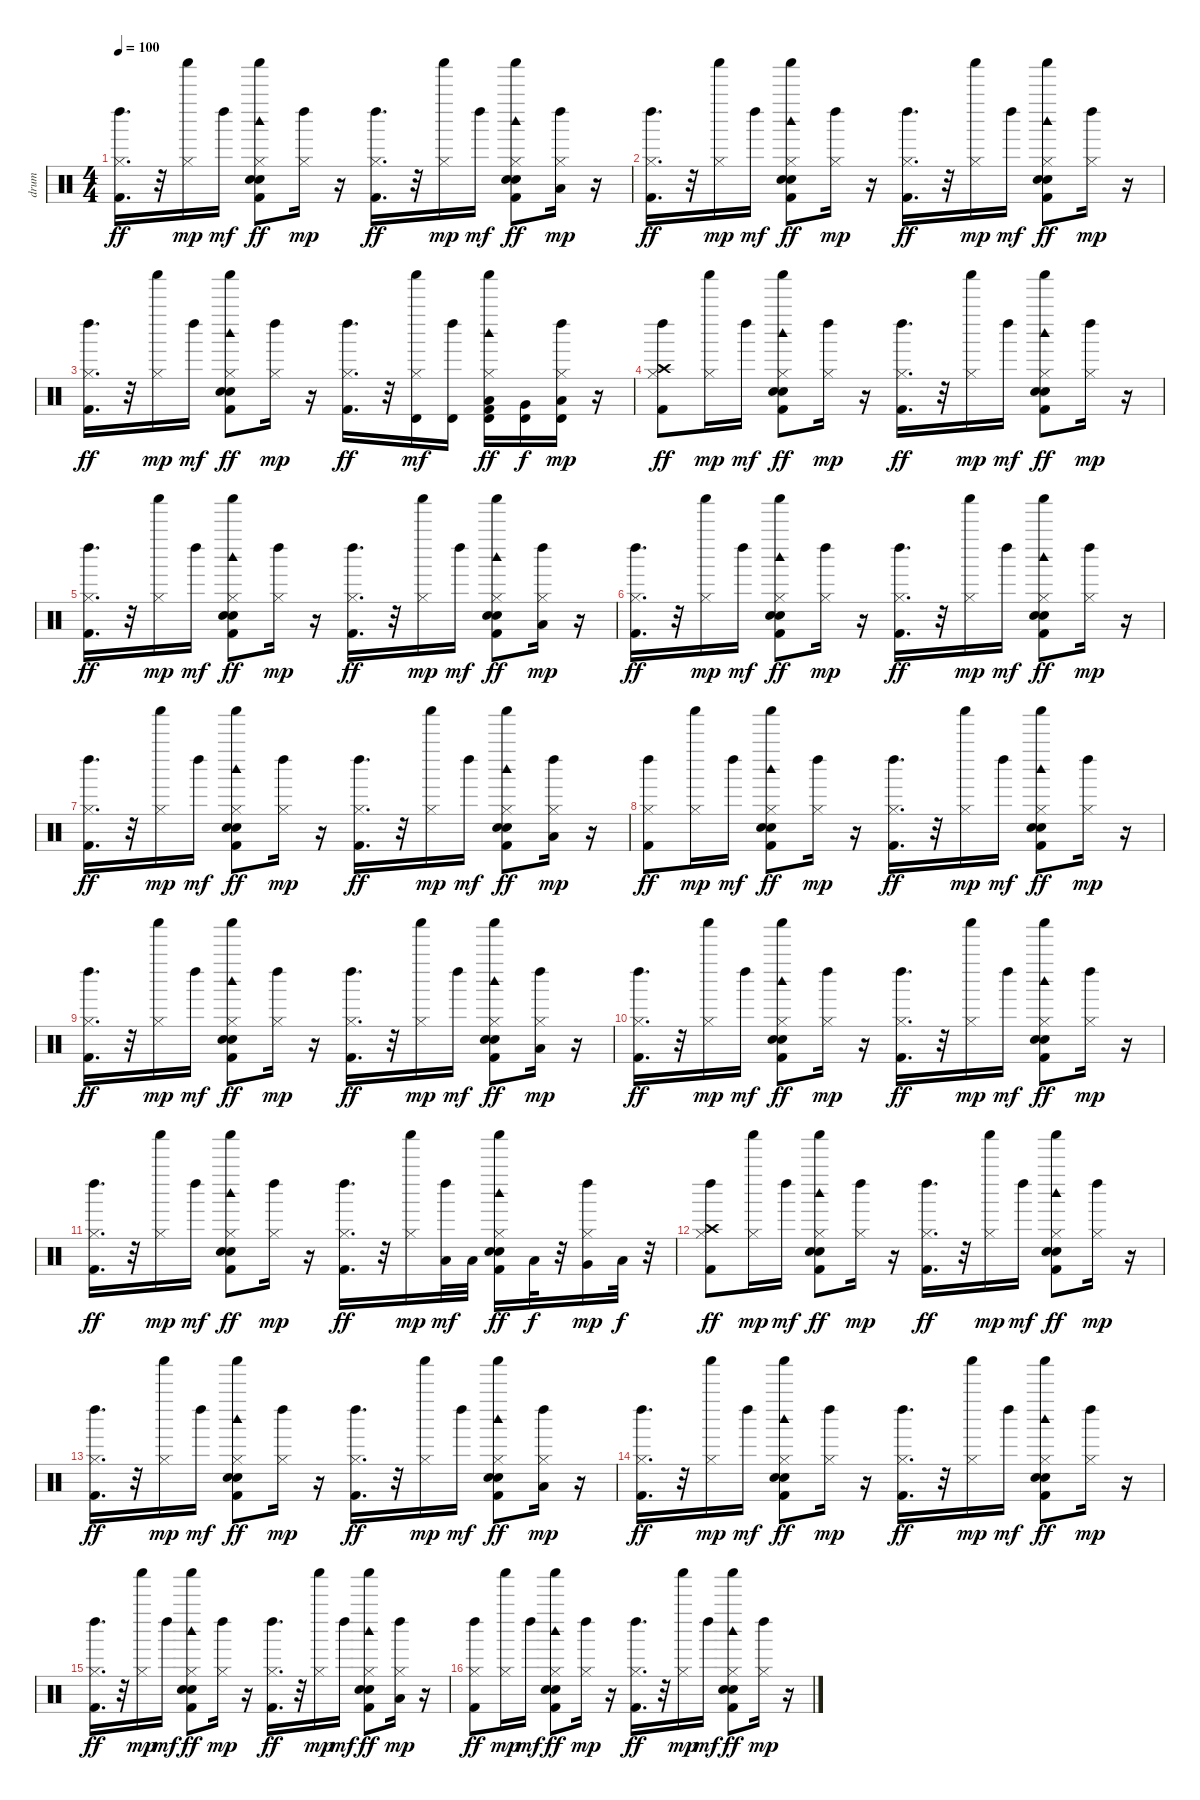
\track ("drum" "drum") {instrument percussion}
\staff {score}
\articulation defaults
\ts (4 4)
\tempo 100
\clef neutral
\ks c
("Left Maraca (hit)" "Hi-Hat (closed)" "Kick (hit) 2").16{d dy ff} r.32 ("Shaker (hit)" "Hi-Hat (closed)").16{dy mp} "Left Maraca (hit)".16{dy mf} ("Shaker (hit)" "Woodblock high (hit)" "Hi-Hat (closed)" "Hand Clap (hit)" "Snare (hit) 2" "Kick (hit) 2").8{dy ff} ("Left Maraca (hit)" "Hi-Hat (closed)").16{dy mp} r.16 ("Left Maraca (hit)" "Hi-Hat (closed)" "Kick (hit) 2").16{d dy ff} r.32 ("Shaker (hit)" "Hi-Hat (closed)").16{dy mp} "Left Maraca (hit)".16{dy mf} ("Shaker (hit)" "Woodblock high (hit)" "Hi-Hat (closed)" "Hand Clap (hit)" "Snare (hit) 2" "Kick (hit) 2").8{dy ff} ("Left Maraca (hit)" "Hi-Hat (closed)" "Low Floor Tom (hit)").16{dy mp} r.16 |
("Left Maraca (hit)" "Hi-Hat (closed)" "Kick (hit) 2").16{d dy ff} r.32 ("Shaker (hit)" "Hi-Hat (closed)").16{dy mp} "Left Maraca (hit)".16{dy mf} ("Shaker (hit)" "Woodblock high (hit)" "Hi-Hat (closed)" "Hand Clap (hit)" "Snare (hit) 2" "Kick (hit) 2").8{dy ff} ("Left Maraca (hit)" "Hi-Hat (closed)").16{dy mp} r.16 ("Left Maraca (hit)" "Hi-Hat (closed)" "Kick (hit) 2").16{d dy ff} r.32 ("Shaker (hit)" "Hi-Hat (closed)").16{dy mp} "Left Maraca (hit)".16{dy mf} ("Shaker (hit)" "Woodblock high (hit)" "Hi-Hat (closed)" "Hand Clap (hit)" "Snare (hit) 2" "Kick (hit) 2").8{dy ff} ("Left Maraca (hit)" "Hi-Hat (closed)").16{dy mp} r.16 |
("Left Maraca (hit)" "Hi-Hat (closed)" "Kick (hit) 2").16{d dy ff} r.32 ("Shaker (hit)" "Hi-Hat (closed)").16{dy mp} "Left Maraca (hit)".16{dy mf} ("Shaker (hit)" "Woodblock high (hit)" "Hi-Hat (closed)" "Hand Clap (hit)" "Snare (hit) 2" "Kick (hit) 2").8{dy ff} ("Left Maraca (hit)" "Hi-Hat (closed)").16{dy mp} r.16 ("Left Maraca (hit)" "Hi-Hat (closed)" "Kick (hit) 2").16{d dy ff} r.32 ("Shaker (hit)" "Hi-Hat (closed)" "Timbale high (hit)").16{dy mf} ("Left Maraca (hit)" "Timbale high (hit)").16 ("Shaker (hit)" "Woodblock high (hit)" "Hi-Hat (closed)" "Kick (hit) 2" "Low Tom (hit)" "Timbale high (hit)").16{dy ff} ("Very Low Tom (hit)" "Timbale high (hit)").16{dy f} ("Left Maraca (hit)" "Hi-Hat (closed)" "Low Floor Tom (hit)" "Timbale high (hit)").16{dy mp} r.16 |
("Crash high (hit)" "Left Maraca (hit)" "Hi-Hat (closed)" "Kick (hit) 2").8{dy ff} ("Shaker (hit)" "Hi-Hat (closed)").16{dy mp} "Left Maraca (hit)".16{dy mf} ("Shaker (hit)" "Woodblock high (hit)" "Hi-Hat (closed)" "Hand Clap (hit)" "Snare (hit) 2" "Kick (hit) 2").8{dy ff} ("Left Maraca (hit)" "Hi-Hat (closed)").16{dy mp} r.16 ("Left Maraca (hit)" "Hi-Hat (closed)" "Kick (hit) 2").16{d dy ff} r.32 ("Shaker (hit)" "Hi-Hat (closed)").16{dy mp} "Left Maraca (hit)".16{dy mf} ("Shaker (hit)" "Woodblock high (hit)" "Hi-Hat (closed)" "Hand Clap (hit)" "Snare (hit) 2" "Kick (hit) 2").8{dy ff} ("Left Maraca (hit)" "Hi-Hat (closed)").16{dy mp} r.16 |
("Left Maraca (hit)" "Hi-Hat (closed)" "Kick (hit) 2").16{d dy ff} r.32 ("Shaker (hit)" "Hi-Hat (closed)").16{dy mp} "Left Maraca (hit)".16{dy mf} ("Shaker (hit)" "Woodblock high (hit)" "Hi-Hat (closed)" "Hand Clap (hit)" "Snare (hit) 2" "Kick (hit) 2").8{dy ff} ("Left Maraca (hit)" "Hi-Hat (closed)").16{dy mp} r.16 ("Left Maraca (hit)" "Hi-Hat (closed)" "Kick (hit) 2").16{d dy ff} r.32 ("Shaker (hit)" "Hi-Hat (closed)").16{dy mp} "Left Maraca (hit)".16{dy mf} ("Shaker (hit)" "Woodblock high (hit)" "Hi-Hat (closed)" "Hand Clap (hit)" "Snare (hit) 2" "Kick (hit) 2").8{dy ff} ("Left Maraca (hit)" "Hi-Hat (closed)" "Low Floor Tom (hit)").16{dy mp} r.16 |
("Left Maraca (hit)" "Hi-Hat (closed)" "Kick (hit) 2").16{d dy ff} r.32 ("Shaker (hit)" "Hi-Hat (closed)").16{dy mp} "Left Maraca (hit)".16{dy mf} ("Shaker (hit)" "Woodblock high (hit)" "Hi-Hat (closed)" "Hand Clap (hit)" "Snare (hit) 2" "Kick (hit) 2").8{dy ff} ("Left Maraca (hit)" "Hi-Hat (closed)").16{dy mp} r.16 ("Left Maraca (hit)" "Hi-Hat (closed)" "Kick (hit) 2").16{d dy ff} r.32 ("Shaker (hit)" "Hi-Hat (closed)").16{dy mp} "Left Maraca (hit)".16{dy mf} ("Shaker (hit)" "Woodblock high (hit)" "Hi-Hat (closed)" "Hand Clap (hit)" "Snare (hit) 2" "Kick (hit) 2").8{dy ff} ("Left Maraca (hit)" "Hi-Hat (closed)").16{dy mp} r.16 |
("Left Maraca (hit)" "Hi-Hat (closed)" "Kick (hit) 2").16{d dy ff} r.32 ("Shaker (hit)" "Hi-Hat (closed)").16{dy mp} "Left Maraca (hit)".16{dy mf} ("Shaker (hit)" "Woodblock high (hit)" "Hi-Hat (closed)" "Hand Clap (hit)" "Snare (hit) 2" "Kick (hit) 2").8{dy ff} ("Left Maraca (hit)" "Hi-Hat (closed)").16{dy mp} r.16 ("Left Maraca (hit)" "Hi-Hat (closed)" "Kick (hit) 2").16{d dy ff} r.32 ("Shaker (hit)" "Hi-Hat (closed)").16{dy mp} "Left Maraca (hit)".16{dy mf} ("Shaker (hit)" "Woodblock high (hit)" "Hi-Hat (closed)" "Hand Clap (hit)" "Snare (hit) 2" "Kick (hit) 2").8{dy ff} ("Left Maraca (hit)" "Hi-Hat (closed)" "Low Floor Tom (hit)").16{dy mp} r.16 |
("Left Maraca (hit)" "Hi-Hat (closed)" "Kick (hit) 2").8{dy ff} ("Shaker (hit)" "Hi-Hat (closed)").16{dy mp} "Left Maraca (hit)".16{dy mf} ("Shaker (hit)" "Woodblock high (hit)" "Hi-Hat (closed)" "Hand Clap (hit)" "Snare (hit) 2" "Kick (hit) 2").8{dy ff} ("Left Maraca (hit)" "Hi-Hat (closed)").16{dy mp} r.16 ("Left Maraca (hit)" "Hi-Hat (closed)" "Kick (hit) 2").16{d dy ff} r.32 ("Shaker (hit)" "Hi-Hat (closed)").16{dy mp} "Left Maraca (hit)".16{dy mf} ("Shaker (hit)" "Woodblock high (hit)" "Hi-Hat (closed)" "Hand Clap (hit)" "Snare (hit) 2" "Kick (hit) 2").8{dy ff} ("Left Maraca (hit)" "Hi-Hat (closed)").16{dy mp} r.16 |
("Left Maraca (hit)" "Hi-Hat (closed)" "Kick (hit) 2").16{d dy ff} r.32 ("Shaker (hit)" "Hi-Hat (closed)").16{dy mp} "Left Maraca (hit)".16{dy mf} ("Shaker (hit)" "Woodblock high (hit)" "Hi-Hat (closed)" "Hand Clap (hit)" "Snare (hit) 2" "Kick (hit) 2").8{dy ff} ("Left Maraca (hit)" "Hi-Hat (closed)").16{dy mp} r.16 ("Left Maraca (hit)" "Hi-Hat (closed)" "Kick (hit) 2").16{d dy ff} r.32 ("Shaker (hit)" "Hi-Hat (closed)").16{dy mp} "Left Maraca (hit)".16{dy mf} ("Shaker (hit)" "Woodblock high (hit)" "Hi-Hat (closed)" "Hand Clap (hit)" "Snare (hit) 2" "Kick (hit) 2").8{dy ff} ("Left Maraca (hit)" "Hi-Hat (closed)" "Low Floor Tom (hit)").16{dy mp} r.16 |
("Left Maraca (hit)" "Hi-Hat (closed)" "Kick (hit) 2").16{d dy ff} r.32 ("Shaker (hit)" "Hi-Hat (closed)").16{dy mp} "Left Maraca (hit)".16{dy mf} ("Shaker (hit)" "Woodblock high (hit)" "Hi-Hat (closed)" "Hand Clap (hit)" "Snare (hit) 2" "Kick (hit) 2").8{dy ff} ("Left Maraca (hit)" "Hi-Hat (closed)").16{dy mp} r.16 ("Left Maraca (hit)" "Hi-Hat (closed)" "Kick (hit) 2").16{d dy ff} r.32 ("Shaker (hit)" "Hi-Hat (closed)").16{dy mp} "Left Maraca (hit)".16{dy mf} ("Shaker (hit)" "Woodblock high (hit)" "Hi-Hat (closed)" "Hand Clap (hit)" "Snare (hit) 2" "Kick (hit) 2").8{dy ff} ("Left Maraca (hit)" "Hi-Hat (closed)").16{dy mp} r.16 |
("Left Maraca (hit)" "Hi-Hat (closed)" "Kick (hit) 2").16{d dy ff} r.32 ("Shaker (hit)" "Hi-Hat (closed)").16{dy mp} "Left Maraca (hit)".16{dy mf} ("Shaker (hit)" "Woodblock high (hit)" "Hi-Hat (closed)" "Hand Clap (hit)" "Snare (hit) 2" "Kick (hit) 2").8{dy ff} ("Left Maraca (hit)" "Hi-Hat (closed)").16{dy mp} r.16 ("Left Maraca (hit)" "Hi-Hat (closed)" "Kick (hit) 2").16{d dy ff} r.32 ("Shaker (hit)" "Hi-Hat (closed)").16{dy mp} ("Left Maraca (hit)" "Low Tom (hit)").32{dy mf} "Low Tom (hit)".32 ("Shaker (hit)" "Woodblock high (hit)" "Hi-Hat (closed)" "Hand Clap (hit)" "Snare (hit) 2" "Kick (hit) 2").16{dy ff} "Low Tom (hit)".32{dy f} r.32 ("Left Maraca (hit)" "Hi-Hat (closed)" "Very Low Tom (hit)").16{dy mp} "Low Floor Tom (hit)".32{dy f} r.32 |
("Crash high (hit)" "Left Maraca (hit)" "Hi-Hat (closed)" "Kick (hit) 2").8{dy ff} ("Shaker (hit)" "Hi-Hat (closed)").16{dy mp} "Left Maraca (hit)".16{dy mf} ("Shaker (hit)" "Woodblock high (hit)" "Hi-Hat (closed)" "Hand Clap (hit)" "Snare (hit) 2" "Kick (hit) 2").8{dy ff} ("Left Maraca (hit)" "Hi-Hat (closed)").16{dy mp} r.16 ("Left Maraca (hit)" "Hi-Hat (closed)" "Kick (hit) 2").16{d dy ff} r.32 ("Shaker (hit)" "Hi-Hat (closed)").16{dy mp} "Left Maraca (hit)".16{dy mf} ("Shaker (hit)" "Woodblock high (hit)" "Hi-Hat (closed)" "Hand Clap (hit)" "Snare (hit) 2" "Kick (hit) 2").8{dy ff} ("Left Maraca (hit)" "Hi-Hat (closed)").16{dy mp} r.16 |
("Left Maraca (hit)" "Hi-Hat (closed)" "Kick (hit) 2").16{d dy ff} r.32 ("Shaker (hit)" "Hi-Hat (closed)").16{dy mp} "Left Maraca (hit)".16{dy mf} ("Shaker (hit)" "Woodblock high (hit)" "Hi-Hat (closed)" "Hand Clap (hit)" "Snare (hit) 2" "Kick (hit) 2").8{dy ff} ("Left Maraca (hit)" "Hi-Hat (closed)").16{dy mp} r.16 ("Left Maraca (hit)" "Hi-Hat (closed)" "Kick (hit) 2").16{d dy ff} r.32 ("Shaker (hit)" "Hi-Hat (closed)").16{dy mp} "Left Maraca (hit)".16{dy mf} ("Shaker (hit)" "Woodblock high (hit)" "Hi-Hat (closed)" "Hand Clap (hit)" "Snare (hit) 2" "Kick (hit) 2").8{dy ff} ("Left Maraca (hit)" "Hi-Hat (closed)" "Low Floor Tom (hit)").16{dy mp} r.16 |
("Left Maraca (hit)" "Hi-Hat (closed)" "Kick (hit) 2").16{d dy ff} r.32 ("Shaker (hit)" "Hi-Hat (closed)").16{dy mp} "Left Maraca (hit)".16{dy mf} ("Shaker (hit)" "Woodblock high (hit)" "Hi-Hat (closed)" "Hand Clap (hit)" "Snare (hit) 2" "Kick (hit) 2").8{dy ff} ("Left Maraca (hit)" "Hi-Hat (closed)").16{dy mp} r.16 ("Left Maraca (hit)" "Hi-Hat (closed)" "Kick (hit) 2").16{d dy ff} r.32 ("Shaker (hit)" "Hi-Hat (closed)").16{dy mp} "Left Maraca (hit)".16{dy mf} ("Shaker (hit)" "Woodblock high (hit)" "Hi-Hat (closed)" "Hand Clap (hit)" "Snare (hit) 2" "Kick (hit) 2").8{dy ff} ("Left Maraca (hit)" "Hi-Hat (closed)").16{dy mp} r.16 |
("Left Maraca (hit)" "Hi-Hat (closed)" "Kick (hit) 2").16{d dy ff} r.32 ("Shaker (hit)" "Hi-Hat (closed)").16{dy mp} "Left Maraca (hit)".16{dy mf} ("Shaker (hit)" "Woodblock high (hit)" "Hi-Hat (closed)" "Hand Clap (hit)" "Snare (hit) 2" "Kick (hit) 2").8{dy ff} ("Left Maraca (hit)" "Hi-Hat (closed)").16{dy mp} r.16 ("Left Maraca (hit)" "Hi-Hat (closed)" "Kick (hit) 2").16{d dy ff} r.32 ("Shaker (hit)" "Hi-Hat (closed)").16{dy mp} "Left Maraca (hit)".16{dy mf} ("Shaker (hit)" "Woodblock high (hit)" "Hi-Hat (closed)" "Hand Clap (hit)" "Snare (hit) 2" "Kick (hit) 2").8{dy ff} ("Left Maraca (hit)" "Hi-Hat (closed)" "Low Floor Tom (hit)").16{dy mp} r.16 |
("Left Maraca (hit)" "Hi-Hat (closed)" "Kick (hit) 2").8{dy ff} ("Shaker (hit)" "Hi-Hat (closed)").16{dy mp} "Left Maraca (hit)".16{dy mf} ("Shaker (hit)" "Woodblock high (hit)" "Hi-Hat (closed)" "Hand Clap (hit)" "Snare (hit) 2" "Kick (hit) 2").8{dy ff} ("Left Maraca (hit)" "Hi-Hat (closed)").16{dy mp} r.16 ("Left Maraca (hit)" "Hi-Hat (closed)" "Kick (hit) 2").16{d dy ff} r.32 ("Shaker (hit)" "Hi-Hat (closed)").16{dy mp} "Left Maraca (hit)".16{dy mf} ("Shaker (hit)" "Woodblock high (hit)" "Hi-Hat (closed)" "Hand Clap (hit)" "Snare (hit) 2" "Kick (hit) 2").8{dy ff} ("Left Maraca (hit)" "Hi-Hat (closed)").16{dy mp} r.16
